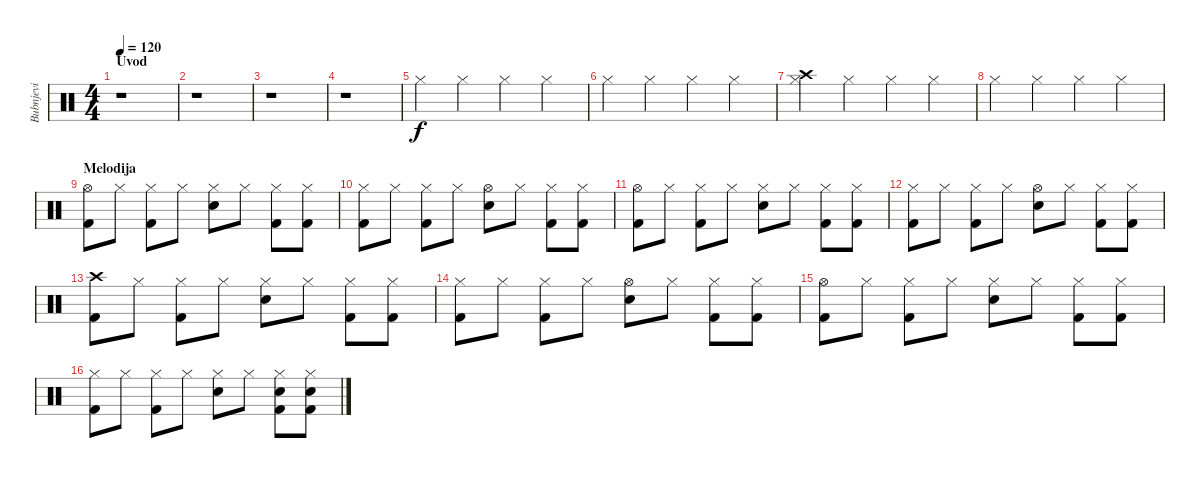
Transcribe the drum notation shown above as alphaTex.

\track ("Bubnjevi" "Bubnjevi") {instrument percussion}
\staff {score}
\articulation defaults
\ts (4 4)
\section ("" "Uvod")
\tempo 120
\clef neutral
\ks c
r.1{dy f} |
r.1 |
r.1 |
r.1 |
"Hi-Hat (closed)".4 "Hi-Hat (closed)".4 "Hi-Hat (closed)".4 "Hi-Hat (closed)".4 |
"Hi-Hat (closed)".4 "Hi-Hat (closed)".4 "Hi-Hat (closed)".4 "Hi-Hat (closed)".4 |
("Crash high (hit)" "Hi-Hat (closed)").4 "Hi-Hat (closed)".4 "Hi-Hat (closed)".4 "Hi-Hat (closed)".4 |
"Hi-Hat (closed)".4 "Hi-Hat (closed)".4 "Hi-Hat (closed)".4 "Hi-Hat (closed)".4 |
\section ("" "Melodija")
("Hi-Hat (open)" "Kick (hit) 2").8 "Hi-Hat (closed)".8 ("Hi-Hat (closed)" "Kick (hit) 2").8 "Hi-Hat (closed)".8 ("Hi-Hat (closed)" "Snare (hit) 2").8 "Hi-Hat (closed)".8 ("Hi-Hat (closed)" "Kick (hit) 2").8 ("Hi-Hat (closed)" "Kick (hit) 2").8 |
("Hi-Hat (closed)" "Kick (hit) 2").8 "Hi-Hat (closed)".8 ("Hi-Hat (closed)" "Kick (hit) 2").8 "Hi-Hat (closed)".8 ("Hi-Hat (open)" "Snare (hit) 2").8 "Hi-Hat (closed)".8 ("Hi-Hat (closed)" "Kick (hit) 2").8 ("Hi-Hat (closed)" "Kick (hit) 2").8 |
("Hi-Hat (open)" "Kick (hit) 2").8 "Hi-Hat (closed)".8 ("Hi-Hat (closed)" "Kick (hit) 2").8 "Hi-Hat (closed)".8 ("Hi-Hat (closed)" "Snare (hit) 2").8 "Hi-Hat (closed)".8 ("Hi-Hat (closed)" "Kick (hit) 2").8 ("Hi-Hat (closed)" "Kick (hit) 2").8 |
("Hi-Hat (closed)" "Kick (hit) 2").8 "Hi-Hat (closed)".8 ("Hi-Hat (closed)" "Kick (hit) 2").8 "Hi-Hat (closed)".8 ("Hi-Hat (open)" "Snare (hit) 2").8 "Hi-Hat (closed)".8 ("Hi-Hat (closed)" "Kick (hit) 2").8 ("Hi-Hat (closed)" "Kick (hit) 2").8 |
("Crash high (hit)" "Kick (hit) 2").8 "Hi-Hat (closed)".8 ("Hi-Hat (closed)" "Kick (hit) 2").8 "Hi-Hat (closed)".8 ("Hi-Hat (closed)" "Snare (hit) 2").8 "Hi-Hat (closed)".8 ("Hi-Hat (closed)" "Kick (hit) 2").8 ("Hi-Hat (closed)" "Kick (hit) 2").8 |
("Hi-Hat (closed)" "Kick (hit) 2").8 "Hi-Hat (closed)".8 ("Hi-Hat (closed)" "Kick (hit) 2").8 "Hi-Hat (closed)".8 ("Hi-Hat (open)" "Snare (hit) 2").8 "Hi-Hat (closed)".8 ("Hi-Hat (closed)" "Kick (hit) 2").8 ("Hi-Hat (closed)" "Kick (hit) 2").8 |
("Hi-Hat (open)" "Kick (hit) 2").8 "Hi-Hat (closed)".8 ("Hi-Hat (closed)" "Kick (hit) 2").8 "Hi-Hat (closed)".8 ("Hi-Hat (closed)" "Snare (hit) 2").8 "Hi-Hat (closed)".8 ("Hi-Hat (closed)" "Kick (hit) 2").8 ("Hi-Hat (closed)" "Kick (hit) 2").8 |
("Hi-Hat (closed)" "Kick (hit) 2").8 "Hi-Hat (closed)".8 ("Hi-Hat (closed)" "Kick (hit) 2").8 "Hi-Hat (closed)".8 ("Hi-Hat (closed)" "Snare (hit) 2").8 "Hi-Hat (closed)".8 ("Hi-Hat (closed)" "Snare (hit) 2" "Kick (hit) 2").8 ("Hi-Hat (closed)" "Snare (hit) 2" "Kick (hit) 2").8
